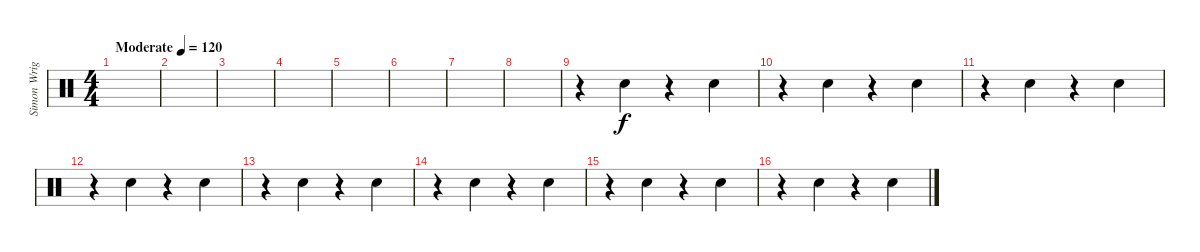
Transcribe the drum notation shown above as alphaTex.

\track ("Simon Wright (i think)" "Simon Wrig") {instrument percussion}
\staff {score}
\articulation defaults
\ts (4 4)
\tempo (120 "Moderate")
\clef neutral
\ks c
|
|
|
|
|
|
|
|
r.4 "Snare (hit) 2".4 r.4 "Snare (hit) 2".4 |
r.4 "Snare (hit) 2".4 r.4 "Snare (hit) 2".4 |
r.4 "Snare (hit) 2".4 r.4 "Snare (hit) 2".4 |
r.4 "Snare (hit) 2".4 r.4 "Snare (hit) 2".4 |
r.4 "Snare (hit) 2".4 r.4 "Snare (hit) 2".4 |
r.4 "Snare (hit) 2".4 r.4 "Snare (hit) 2".4 |
r.4 "Snare (hit) 2".4 r.4 "Snare (hit) 2".4 |
r.4 "Snare (hit) 2".4 r.4 "Snare (hit) 2".4
